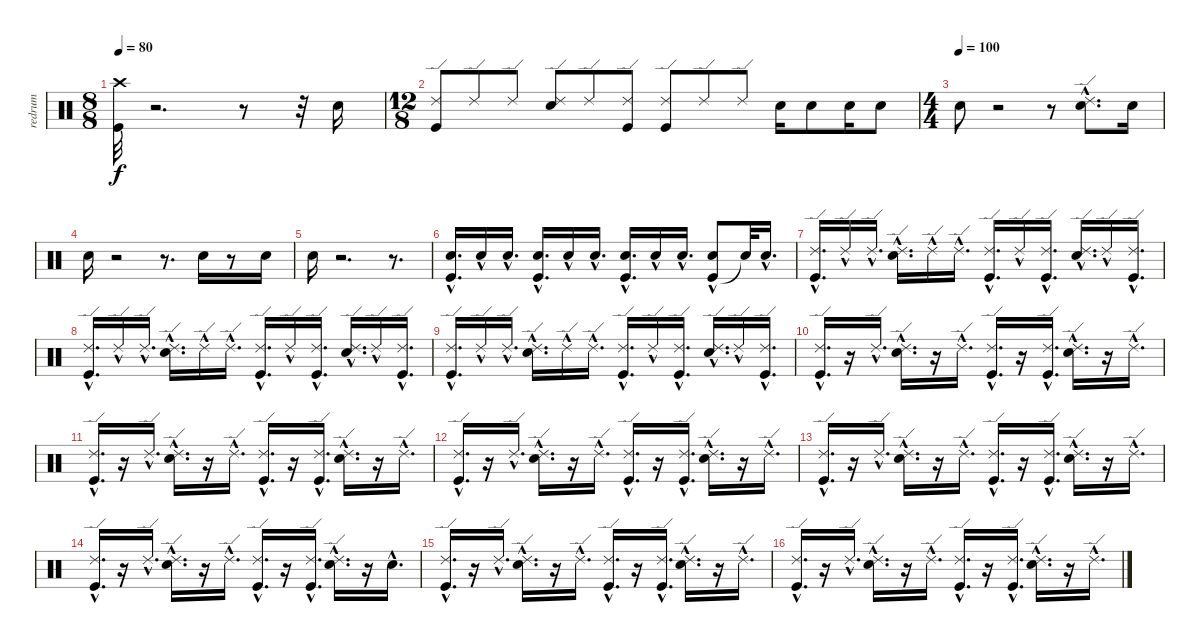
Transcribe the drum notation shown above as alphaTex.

\track ("redrum" "redrum") {instrument percussion}
\staff {score}
\articulation defaults
\ts (8 8)
\tempo 80
\clef neutral
\ks c
("Kick (hit)" "Crash high (hit)").32{dy f} r.2{d} r.8 r.32 "Electric Snare (hit)".16 |
\ts (12 8)
("Ride (edge) 2" "Kick (hit)").8 "Ride (edge) 2".8 "Ride (edge) 2".8 ("Electric Snare (hit)" "Ride (edge) 2").8 "Ride (edge) 2".8 ("Ride (edge) 2" "Kick (hit)").8 ("Kick (hit)" "Ride (edge) 2").8 "Ride (edge) 2".8 "Ride (edge) 2".8 "Electric Snare (hit)".16 "Electric Snare (hit)".8 "Electric Snare (hit)".16 "Electric Snare (hit)".8 |
\ts (4 4)
\tempo (100)
"Electric Snare (hit)".8 r.2 r.8 ("Electric Snare (hit)"{hac} "Ride (edge) 2").8{d} "Electric Snare (hit)".16 |
"Electric Snare (hit)".16 r.2 r.8{d} "Electric Snare (hit)".16 r.8 "Electric Snare (hit)".16 |
"Electric Snare (hit)".16 r.2{d} r.8{d} |
("Kick (hit)" "Electric Snare (hit)"{hac}).16{d} "Electric Snare (hit)"{hac}.16 "Electric Snare (hit)"{hac}.16{d} ("Kick (hit)" "Electric Snare (hit)"{hac}).16{d} "Electric Snare (hit)"{hac}.16 "Electric Snare (hit)"{hac}.16{d} ("Kick (hit)" "Electric Snare (hit)"{hac}).16{d} "Electric Snare (hit)"{hac}.16 "Electric Snare (hit)"{hac}.16{d} ("Kick (hit)" "Electric Snare (hit)"{hac}).8 "Snare (hit)"{t}.32 "Electric Snare (hit)"{hac}.16{d} |
("Kick (hit)"{hac} "Ride (edge) 2"{hac}).16{d} "Ride (edge) 2"{hac}.16 "Ride (edge) 2"{hac}.16{d} ("Electric Snare (hit)"{hac} "Ride (edge) 2"{hac}).16{d} "Ride (edge) 2"{hac}.16 "Ride (edge) 2"{hac}.16{d} ("Kick (hit)"{hac} "Ride (edge) 2"{hac}).16{d} "Ride (edge) 2"{hac}.16 ("Kick (hit)"{hac} "Ride (edge) 2"{hac}).16{d} ("Electric Snare (hit)"{hac} "Ride (edge) 2"{hac}).16{d} "Ride (edge) 2"{hac}.16 ("Kick (hit)"{hac} "Ride (edge) 2"{hac}).16{d} |
("Kick (hit)"{hac} "Ride (edge) 2"{hac}).16{d} "Ride (edge) 2"{hac}.16 "Ride (edge) 2"{hac}.16{d} ("Electric Snare (hit)"{hac} "Ride (edge) 2"{hac}).16{d} "Ride (edge) 2"{hac}.16 "Ride (edge) 2"{hac}.16{d} ("Kick (hit)"{hac} "Ride (edge) 2"{hac}).16{d} "Ride (edge) 2"{hac}.16 ("Kick (hit)"{hac} "Ride (edge) 2"{hac}).16{d} ("Electric Snare (hit)"{hac} "Ride (edge) 2"{hac}).16{d} "Ride (edge) 2"{hac}.16 ("Kick (hit)"{hac} "Ride (edge) 2"{hac}).16{d} |
("Kick (hit)"{hac} "Ride (edge) 2"{hac}).16{d} "Ride (edge) 2"{hac}.16 "Ride (edge) 2"{hac}.16{d} ("Electric Snare (hit)"{hac} "Ride (edge) 2"{hac}).16{d} "Ride (edge) 2"{hac}.16 "Ride (edge) 2"{hac}.16{d} ("Kick (hit)"{hac} "Ride (edge) 2"{hac}).16{d} "Ride (edge) 2"{hac}.16 ("Kick (hit)"{hac} "Ride (edge) 2"{hac}).16{d} ("Electric Snare (hit)"{hac} "Ride (edge) 2"{hac}).16{d} "Ride (edge) 2"{hac}.16 ("Kick (hit)"{hac} "Ride (edge) 2"{hac}).16{d} |
("Kick (hit)"{hac} "Ride (edge) 2"{hac}).16{d} r.16 "Ride (edge) 2"{hac}.16{d} ("Electric Snare (hit)"{hac} "Ride (edge) 2"{hac}).16{d} r.16 "Ride (edge) 2"{hac}.16{d} ("Kick (hit)"{hac} "Ride (edge) 2"{hac}).16{d} r.16 ("Kick (hit)"{hac} "Ride (edge) 2"{hac}).16{d} ("Electric Snare (hit)"{hac} "Ride (edge) 2"{hac}).16{d} r.16 "Ride (edge) 2"{hac}.16{d} |
("Kick (hit)"{hac} "Ride (edge) 2"{hac}).16{d} r.16 "Ride (edge) 2"{hac}.16{d} ("Electric Snare (hit)"{hac} "Ride (edge) 2"{hac}).16{d} r.16 "Ride (edge) 2"{hac}.16{d} ("Kick (hit)"{hac} "Ride (edge) 2"{hac}).16{d} r.16 ("Kick (hit)"{hac} "Ride (edge) 2"{hac}).16{d} ("Electric Snare (hit)"{hac} "Ride (edge) 2"{hac}).16{d} r.16 "Ride (edge) 2"{hac}.16{d} |
("Kick (hit)"{hac} "Ride (edge) 2"{hac}).16{d} r.16 "Ride (edge) 2"{hac}.16{d} ("Electric Snare (hit)"{hac} "Ride (edge) 2"{hac}).16{d} r.16 "Ride (edge) 2"{hac}.16{d} ("Kick (hit)"{hac} "Ride (edge) 2"{hac}).16{d} r.16 ("Kick (hit)"{hac} "Ride (edge) 2"{hac}).16{d} ("Electric Snare (hit)"{hac} "Ride (edge) 2"{hac}).16{d} r.16 "Ride (edge) 2"{hac}.16{d} |
("Kick (hit)"{hac} "Ride (edge) 2"{hac}).16{d} r.16 "Ride (edge) 2"{hac}.16{d} ("Electric Snare (hit)"{hac} "Ride (edge) 2"{hac}).16{d} r.16 "Ride (edge) 2"{hac}.16{d} ("Kick (hit)"{hac} "Ride (edge) 2"{hac}).16{d} r.16 ("Kick (hit)"{hac} "Ride (edge) 2"{hac}).16{d} ("Electric Snare (hit)"{hac} "Ride (edge) 2"{hac}).16{d} r.16 "Ride (edge) 2"{hac}.16{d} |
("Kick (hit)"{hac} "Ride (edge) 2"{hac}).16{d} r.16 "Ride (edge) 2"{hac}.16{d} ("Electric Snare (hit)"{hac} "Ride (edge) 2"{hac}).16{d} r.16 "Ride (edge) 2"{hac}.16{d} ("Kick (hit)"{hac} "Ride (edge) 2"{hac}).16{d} r.16 ("Kick (hit)"{hac} "Ride (edge) 2"{hac}).16{d} ("Electric Snare (hit)"{hac} "Ride (edge) 2"{hac}).16{d} r.16 "Electric Snare (hit)"{hac}.16{d} |
("Ride (edge) 2"{hac} "Kick (hit)"{hac}).16{d} r.16 "Ride (edge) 2"{hac}.16{d} ("Electric Snare (hit)"{hac} "Ride (edge) 2"{hac}).16{d} r.16 "Ride (edge) 2"{hac}.16{d} ("Kick (hit)"{hac} "Ride (edge) 2"{hac}).16{d} r.16 ("Kick (hit)"{hac} "Ride (edge) 2"{hac}).16{d} ("Electric Snare (hit)"{hac} "Ride (edge) 2"{hac}).16{d} r.16 "Ride (edge) 2"{hac}.16{d} |
("Ride (edge) 2"{hac} "Kick (hit)"{hac}).16{d} r.16 "Ride (edge) 2"{hac}.16{d} ("Electric Snare (hit)"{hac} "Ride (edge) 2"{hac}).16{d} r.16 "Ride (edge) 2"{hac}.16{d} ("Kick (hit)"{hac} "Ride (edge) 2"{hac}).16{d} r.16 ("Kick (hit)"{hac} "Ride (edge) 2"{hac}).16{d} ("Electric Snare (hit)"{hac} "Ride (edge) 2"{hac}).16{d} r.16 "Ride (edge) 2"{hac}.16{d}
